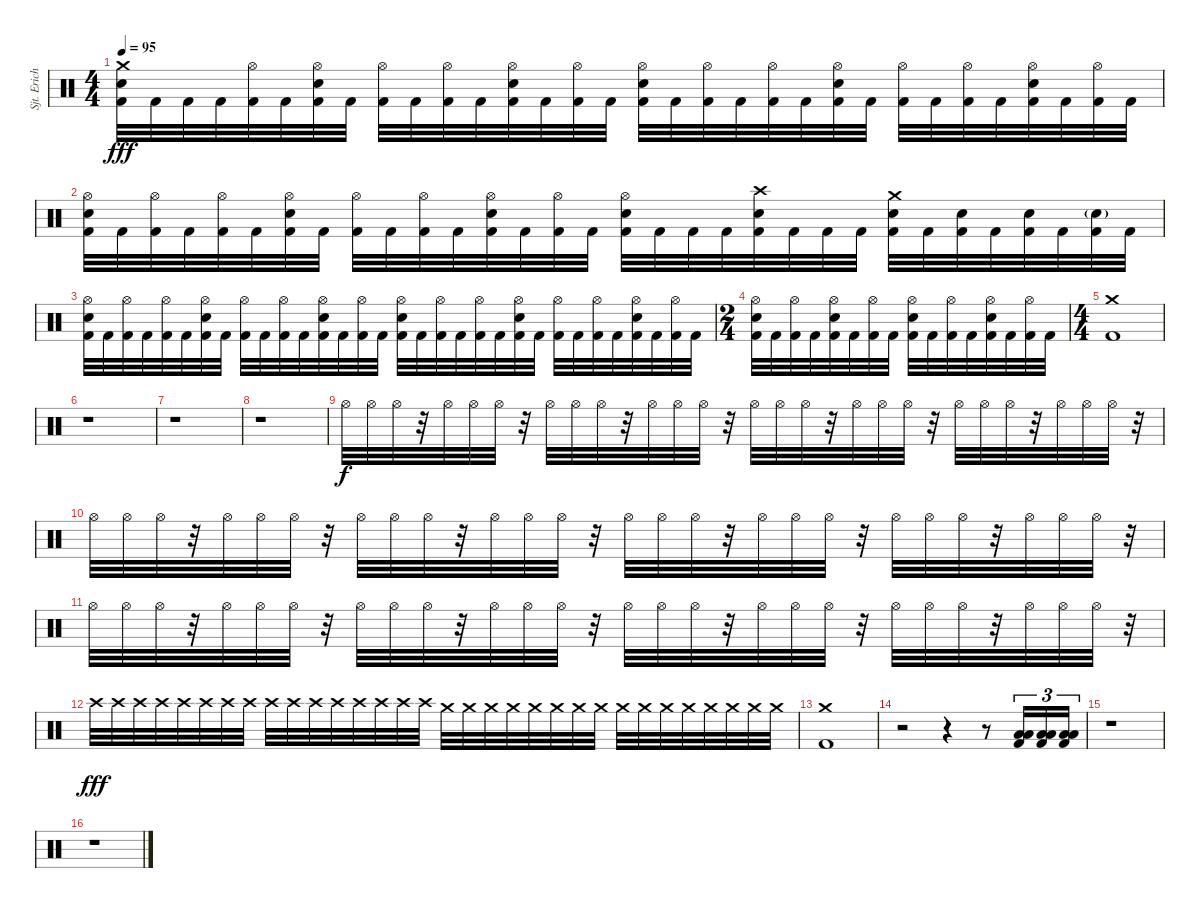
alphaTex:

\track ("Sjt. Erichsen" "Sjt. Erich") {instrument percussion}
\staff {score}
\articulation defaults
\ts (4 4)
\tempo 95
\clef neutral
\ks c
("Crash medium (hit)" "Electric Snare (hit)" "Kick (hit) 2").32{dy fff} "Kick (hit) 2".32 "Kick (hit) 2".32 "Kick (hit) 2".32 ("Hi-Hat (open)" "Kick (hit) 2").32 "Kick (hit) 2".32 ("Hi-Hat (open)" "Electric Snare (hit)" "Kick (hit) 2").32 "Kick (hit) 2".32 ("Hi-Hat (open)" "Kick (hit) 2").32 "Kick (hit) 2".32 ("Hi-Hat (open)" "Kick (hit) 2").32 "Kick (hit) 2".32 ("Hi-Hat (open)" "Electric Snare (hit)" "Kick (hit) 2").32 "Kick (hit) 2".32 ("Hi-Hat (open)" "Kick (hit) 2").32 "Kick (hit) 2".32 ("Hi-Hat (open)" "Electric Snare (hit)" "Kick (hit) 2").32 "Kick (hit) 2".32 ("Hi-Hat (open)" "Kick (hit) 2").32 "Kick (hit) 2".32 ("Hi-Hat (open)" "Kick (hit) 2").32 "Kick (hit) 2".32 ("Hi-Hat (open)" "Electric Snare (hit)" "Kick (hit) 2").32 "Kick (hit) 2".32 ("Hi-Hat (open)" "Kick (hit) 2").32 "Kick (hit) 2".32 ("Hi-Hat (open)" "Kick (hit) 2").32 "Kick (hit) 2".32 ("Hi-Hat (open)" "Electric Snare (hit)" "Kick (hit) 2").32 "Kick (hit) 2".32 ("Hi-Hat (open)" "Kick (hit) 2").32 "Kick (hit) 2".32 |
("Hi-Hat (open)" "Electric Snare (hit)" "Kick (hit) 2").32 "Kick (hit) 2".32 ("Hi-Hat (open)" "Kick (hit) 2").32 "Kick (hit) 2".32 ("Hi-Hat (open)" "Kick (hit) 2").32 "Kick (hit) 2".32 ("Hi-Hat (open)" "Electric Snare (hit)" "Kick (hit) 2").32 "Kick (hit) 2".32 ("Hi-Hat (open)" "Kick (hit) 2").32 "Kick (hit) 2".32 ("Hi-Hat (open)" "Kick (hit) 2").32 "Kick (hit) 2".32 ("Hi-Hat (open)" "Electric Snare (hit)" "Kick (hit) 2").32 "Kick (hit) 2".32 ("Hi-Hat (open)" "Kick (hit) 2").32 "Kick (hit) 2".32 ("Hi-Hat (open)" "Electric Snare (hit)" "Kick (hit) 2").32 "Kick (hit) 2".32 "Kick (hit) 2".32 "Kick (hit) 2".32 ("Crash high (hit)" "Electric Snare (hit)" "Kick (hit) 2").32 "Kick (hit) 2".32 "Kick (hit) 2".32 "Kick (hit) 2".32 ("Crash medium (hit)" "Electric Snare (hit)" "Kick (hit) 2").32 "Kick (hit) 2".32 ("Electric Snare (hit)" "Kick (hit) 2").32 "Kick (hit) 2".32 ("Electric Snare (hit)" "Kick (hit) 2").32 "Kick (hit) 2".32 ("Electric Snare (hit)"{g} "Kick (hit) 2").32 "Kick (hit) 2".32 |
("Hi-Hat (open)" "Electric Snare (hit)" "Kick (hit) 2").32 "Kick (hit) 2".32 ("Hi-Hat (open)" "Kick (hit) 2").32 "Kick (hit) 2".32 ("Hi-Hat (open)" "Kick (hit) 2").32 "Kick (hit) 2".32 ("Hi-Hat (open)" "Electric Snare (hit)" "Kick (hit) 2").32 "Kick (hit) 2".32 ("Hi-Hat (open)" "Kick (hit) 2").32 "Kick (hit) 2".32 ("Hi-Hat (open)" "Kick (hit) 2").32 "Kick (hit) 2".32 ("Hi-Hat (open)" "Electric Snare (hit)" "Kick (hit) 2").32 "Kick (hit) 2".32 ("Hi-Hat (open)" "Kick (hit) 2").32 "Kick (hit) 2".32 ("Hi-Hat (open)" "Electric Snare (hit)" "Kick (hit) 2").32 "Kick (hit) 2".32 ("Hi-Hat (open)" "Kick (hit) 2").32 "Kick (hit) 2".32 ("Hi-Hat (open)" "Kick (hit) 2").32 "Kick (hit) 2".32 ("Hi-Hat (open)" "Electric Snare (hit)" "Kick (hit) 2").32 "Kick (hit) 2".32 ("Hi-Hat (open)" "Kick (hit) 2").32 "Kick (hit) 2".32 ("Hi-Hat (open)" "Kick (hit) 2").32 "Kick (hit) 2".32 ("Hi-Hat (open)" "Electric Snare (hit)" "Kick (hit) 2").32 "Kick (hit) 2".32 ("Hi-Hat (open)" "Kick (hit) 2").32 "Kick (hit) 2".32 |
\ts (2 4)
("Hi-Hat (open)" "Electric Snare (hit)" "Kick (hit) 2").32 "Kick (hit) 2".32 ("Hi-Hat (open)" "Kick (hit) 2").32 "Kick (hit) 2".32 ("Hi-Hat (open)" "Electric Snare (hit)" "Kick (hit) 2").32 "Kick (hit) 2".32 ("Hi-Hat (open)" "Kick (hit) 2").32 "Kick (hit) 2".32 ("Hi-Hat (open)" "Electric Snare (hit)" "Kick (hit) 2").32 "Kick (hit) 2".32 ("Hi-Hat (open)" "Kick (hit) 2").32 "Kick (hit) 2".32 ("Hi-Hat (open)" "Electric Snare (hit)" "Kick (hit) 2").32 "Kick (hit) 2".32 ("Hi-Hat (open)" "Kick (hit) 2").32 "Kick (hit) 2".32 |
\ts (4 4)
("Crash medium (hit)" "Kick (hit) 2").1 |
r.1 |
r.1 |
r.1 |
"Hi-Hat (open)".32{dy f} "Hi-Hat (open)".32 "Hi-Hat (open)".32 r.32 "Hi-Hat (open)".32 "Hi-Hat (open)".32 "Hi-Hat (open)".32 r.32 "Hi-Hat (open)".32 "Hi-Hat (open)".32 "Hi-Hat (open)".32 r.32 "Hi-Hat (open)".32 "Hi-Hat (open)".32 "Hi-Hat (open)".32 r.32 "Hi-Hat (open)".32 "Hi-Hat (open)".32 "Hi-Hat (open)".32 r.32 "Hi-Hat (open)".32 "Hi-Hat (open)".32 "Hi-Hat (open)".32 r.32 "Hi-Hat (open)".32 "Hi-Hat (open)".32 "Hi-Hat (open)".32 r.32 "Hi-Hat (open)".32 "Hi-Hat (open)".32 "Hi-Hat (open)".32 r.32 |
"Hi-Hat (open)".32 "Hi-Hat (open)".32 "Hi-Hat (open)".32 r.32 "Hi-Hat (open)".32 "Hi-Hat (open)".32 "Hi-Hat (open)".32 r.32 "Hi-Hat (open)".32 "Hi-Hat (open)".32 "Hi-Hat (open)".32 r.32 "Hi-Hat (open)".32 "Hi-Hat (open)".32 "Hi-Hat (open)".32 r.32 "Hi-Hat (open)".32 "Hi-Hat (open)".32 "Hi-Hat (open)".32 r.32 "Hi-Hat (open)".32 "Hi-Hat (open)".32 "Hi-Hat (open)".32 r.32 "Hi-Hat (open)".32 "Hi-Hat (open)".32 "Hi-Hat (open)".32 r.32 "Hi-Hat (open)".32 "Hi-Hat (open)".32 "Hi-Hat (open)".32 r.32 |
"Hi-Hat (open)".32 "Hi-Hat (open)".32 "Hi-Hat (open)".32 r.32 "Hi-Hat (open)".32 "Hi-Hat (open)".32 "Hi-Hat (open)".32 r.32 "Hi-Hat (open)".32 "Hi-Hat (open)".32 "Hi-Hat (open)".32 r.32 "Hi-Hat (open)".32 "Hi-Hat (open)".32 "Hi-Hat (open)".32 r.32 "Hi-Hat (open)".32 "Hi-Hat (open)".32 "Hi-Hat (open)".32 r.32 "Hi-Hat (open)".32 "Hi-Hat (open)".32 "Hi-Hat (open)".32 r.32 "Hi-Hat (open)".32 "Hi-Hat (open)".32 "Hi-Hat (open)".32 r.32 "Hi-Hat (open)".32 "Hi-Hat (open)".32 "Hi-Hat (open)".32 r.32 |
"Crash high (hit)".32{dy fff} "Crash high (hit)".32 "Crash high (hit)".32 "Crash high (hit)".32 "Crash high (hit)".32 "Crash high (hit)".32 "Crash high (hit)".32 "Crash high (hit)".32 "Crash high (hit)".32 "Crash high (hit)".32 "Crash high (hit)".32 "Crash high (hit)".32 "Crash high (hit)".32 "Crash high (hit)".32 "Crash high (hit)".32 "Crash high (hit)".32 "Crash medium (hit)".32 "Crash medium (hit)".32 "Crash medium (hit)".32 "Crash medium (hit)".32 "Crash medium (hit)".32 "Crash medium (hit)".32 "Crash medium (hit)".32 "Crash medium (hit)".32 "Crash medium (hit)".32 "Crash medium (hit)".32 "Crash medium (hit)".32 "Crash medium (hit)".32 "Crash medium (hit)".32 "Crash medium (hit)".32 "Crash medium (hit)".32 "Crash medium (hit)".32 |
("Crash medium (hit)" "Kick (hit) 2").1 |
r.2 r.4 r.8 ("Low Floor Tom (hit)" "Low Tom (hit)" "Kick (hit) 2").16{tu (3 2)} ("Low Floor Tom (hit)" "Low Tom (hit)" "Kick (hit) 2").16{tu (3 2)} ("Low Floor Tom (hit)" "Low Tom (hit)" "Kick (hit) 2").16{tu (3 2)} |
r.1 |
r.1
